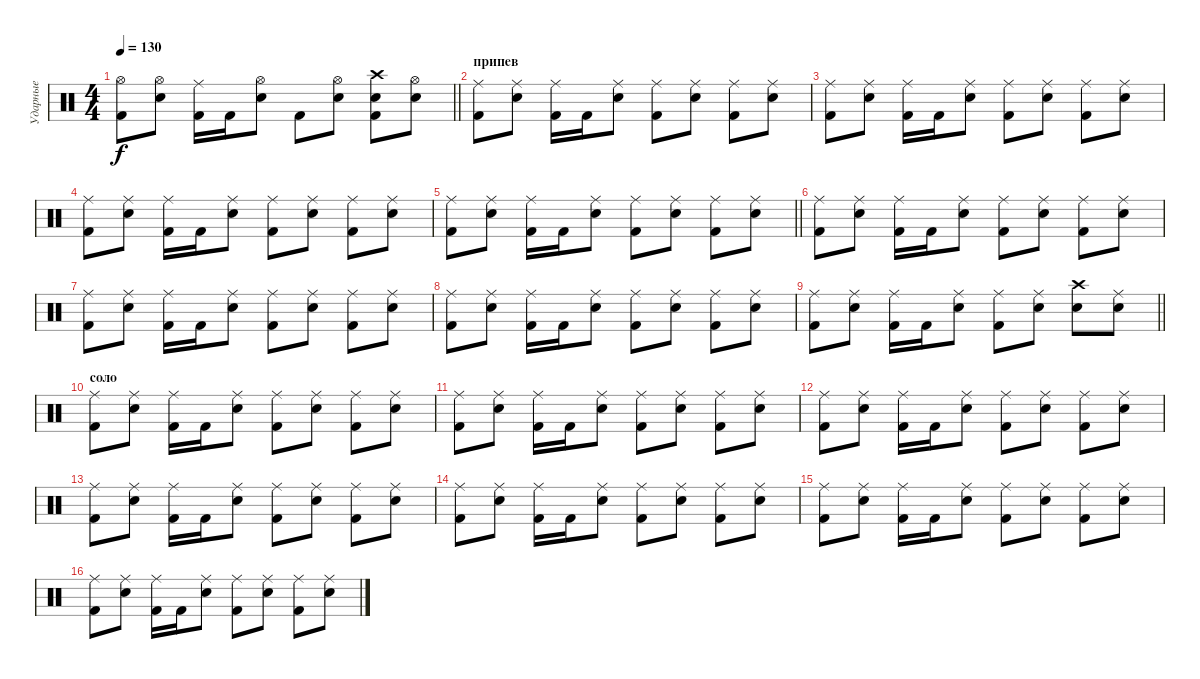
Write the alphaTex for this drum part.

\track ("Ударные" "Ударные") {instrument percussion}
\staff {score}
\articulation defaults
\ts (4 4)
\tempo 130
\clef neutral
\barLineRight lightlight
\ks c
("Kick (hit) 2" "Hi-Hat (open)").8{dy f} ("Electric Snare (hit)" "Hi-Hat (open)").8 ("Kick (hit) 2" "Ride (middle)").16 "Kick (hit) 2".16 ("Electric Snare (hit)" "Hi-Hat (open)").8 "Kick (hit) 2".8 ("Electric Snare (hit)" "Hi-Hat (open)").8 ("Kick (hit) 2" "Crash high (hit)" "Electric Snare (hit)").8 ("Electric Snare (hit)" "Hi-Hat (open)").8 |
\section ("" "припев")
("Kick (hit) 2" "Ride (middle)").8 ("Electric Snare (hit)" "Ride (middle)").8 ("Kick (hit) 2" "Ride (middle)").16 "Kick (hit) 2".16 ("Electric Snare (hit)" "Ride (middle)").8 ("Kick (hit) 2" "Ride (middle)").8 ("Electric Snare (hit)" "Ride (middle)").8 ("Kick (hit) 2" "Ride (middle)").8 ("Electric Snare (hit)" "Ride (middle)").8 |
("Kick (hit) 2" "Ride (middle)").8 ("Electric Snare (hit)" "Ride (middle)").8 ("Kick (hit) 2" "Ride (middle)").16 "Kick (hit) 2".16 ("Electric Snare (hit)" "Ride (middle)").8 ("Kick (hit) 2" "Ride (middle)").8 ("Electric Snare (hit)" "Ride (middle)").8 ("Kick (hit) 2" "Ride (middle)").8 ("Electric Snare (hit)" "Ride (middle)").8 |
("Kick (hit) 2" "Ride (middle)").8 ("Electric Snare (hit)" "Ride (middle)").8 ("Kick (hit) 2" "Ride (middle)").16 "Kick (hit) 2".16 ("Electric Snare (hit)" "Ride (middle)").8 ("Kick (hit) 2" "Ride (middle)").8 ("Electric Snare (hit)" "Ride (middle)").8 ("Kick (hit) 2" "Ride (middle)").8 ("Electric Snare (hit)" "Ride (middle)").8 |
\barLineRight lightlight
("Kick (hit) 2" "Ride (middle)").8 ("Electric Snare (hit)" "Ride (middle)").8 ("Kick (hit) 2" "Ride (middle)").16 "Kick (hit) 2".16 ("Electric Snare (hit)" "Ride (middle)").8 ("Kick (hit) 2" "Ride (middle)").8 ("Electric Snare (hit)" "Ride (middle)").8 ("Kick (hit) 2" "Ride (middle)").8 ("Electric Snare (hit)" "Ride (middle)").8 |
("Kick (hit) 2" "Ride (middle)").8 ("Electric Snare (hit)" "Ride (middle)").8 ("Kick (hit) 2" "Ride (middle)").16 "Kick (hit) 2".16 ("Electric Snare (hit)" "Ride (middle)").8 ("Kick (hit) 2" "Ride (middle)").8 ("Electric Snare (hit)" "Ride (middle)").8 ("Kick (hit) 2" "Ride (middle)").8 ("Electric Snare (hit)" "Ride (middle)").8 |
("Kick (hit) 2" "Ride (middle)").8 ("Electric Snare (hit)" "Ride (middle)").8 ("Kick (hit) 2" "Ride (middle)").16 "Kick (hit) 2".16 ("Electric Snare (hit)" "Ride (middle)").8 ("Kick (hit) 2" "Ride (middle)").8 ("Electric Snare (hit)" "Ride (middle)").8 ("Kick (hit) 2" "Ride (middle)").8 ("Electric Snare (hit)" "Ride (middle)").8 |
("Kick (hit) 2" "Ride (middle)").8 ("Electric Snare (hit)" "Ride (middle)").8 ("Kick (hit) 2" "Ride (middle)").16 "Kick (hit) 2".16 ("Electric Snare (hit)" "Ride (middle)").8 ("Kick (hit) 2" "Ride (middle)").8 ("Electric Snare (hit)" "Ride (middle)").8 ("Kick (hit) 2" "Ride (middle)").8 ("Electric Snare (hit)" "Ride (middle)").8 |
\barLineRight lightlight
("Kick (hit) 2" "Ride (middle)").8 ("Electric Snare (hit)" "Ride (middle)").8 ("Kick (hit) 2" "Ride (middle)").16 "Kick (hit) 2".16 ("Electric Snare (hit)" "Ride (middle)").8 ("Kick (hit) 2" "Ride (middle)").8 ("Electric Snare (hit)" "Ride (middle)").8 ("Electric Snare (hit)" "Crash high (hit)").8 ("Electric Snare (hit)" "Ride (middle)").8 |
\section ("" "соло")
("Kick (hit) 2" "Ride (middle)").8 ("Electric Snare (hit)" "Ride (middle)").8 ("Kick (hit) 2" "Ride (middle)").16 "Kick (hit) 2".16 ("Electric Snare (hit)" "Ride (middle)").8 ("Kick (hit) 2" "Ride (middle)").8 ("Electric Snare (hit)" "Ride (middle)").8 ("Kick (hit) 2" "Ride (middle)").8 ("Electric Snare (hit)" "Ride (middle)").8 |
("Kick (hit) 2" "Ride (middle)").8 ("Electric Snare (hit)" "Ride (middle)").8 ("Kick (hit) 2" "Ride (middle)").16 "Kick (hit) 2".16 ("Electric Snare (hit)" "Ride (middle)").8 ("Kick (hit) 2" "Ride (middle)").8 ("Electric Snare (hit)" "Ride (middle)").8 ("Kick (hit) 2" "Ride (middle)").8 ("Electric Snare (hit)" "Ride (middle)").8 |
("Kick (hit) 2" "Ride (middle)").8 ("Electric Snare (hit)" "Ride (middle)").8 ("Kick (hit) 2" "Ride (middle)").16 "Kick (hit) 2".16 ("Electric Snare (hit)" "Ride (middle)").8 ("Kick (hit) 2" "Ride (middle)").8 ("Electric Snare (hit)" "Ride (middle)").8 ("Kick (hit) 2" "Ride (middle)").8 ("Electric Snare (hit)" "Ride (middle)").8 |
("Kick (hit) 2" "Ride (middle)").8 ("Electric Snare (hit)" "Ride (middle)").8 ("Kick (hit) 2" "Ride (middle)").16 "Kick (hit) 2".16 ("Electric Snare (hit)" "Ride (middle)").8 ("Kick (hit) 2" "Ride (middle)").8 ("Electric Snare (hit)" "Ride (middle)").8 ("Kick (hit) 2" "Ride (middle)").8 ("Electric Snare (hit)" "Ride (middle)").8 |
("Kick (hit) 2" "Ride (middle)").8 ("Electric Snare (hit)" "Ride (middle)").8 ("Kick (hit) 2" "Ride (middle)").16 "Kick (hit) 2".16 ("Electric Snare (hit)" "Ride (middle)").8 ("Kick (hit) 2" "Ride (middle)").8 ("Electric Snare (hit)" "Ride (middle)").8 ("Kick (hit) 2" "Ride (middle)").8 ("Electric Snare (hit)" "Ride (middle)").8 |
("Kick (hit) 2" "Ride (middle)").8 ("Electric Snare (hit)" "Ride (middle)").8 ("Kick (hit) 2" "Ride (middle)").16 "Kick (hit) 2".16 ("Electric Snare (hit)" "Ride (middle)").8 ("Kick (hit) 2" "Ride (middle)").8 ("Electric Snare (hit)" "Ride (middle)").8 ("Kick (hit) 2" "Ride (middle)").8 ("Electric Snare (hit)" "Ride (middle)").8 |
("Kick (hit) 2" "Ride (middle)").8 ("Electric Snare (hit)" "Ride (middle)").8 ("Kick (hit) 2" "Ride (middle)").16 "Kick (hit) 2".16 ("Electric Snare (hit)" "Ride (middle)").8 ("Kick (hit) 2" "Ride (middle)").8 ("Electric Snare (hit)" "Ride (middle)").8 ("Kick (hit) 2" "Ride (middle)").8 ("Electric Snare (hit)" "Ride (middle)").8
